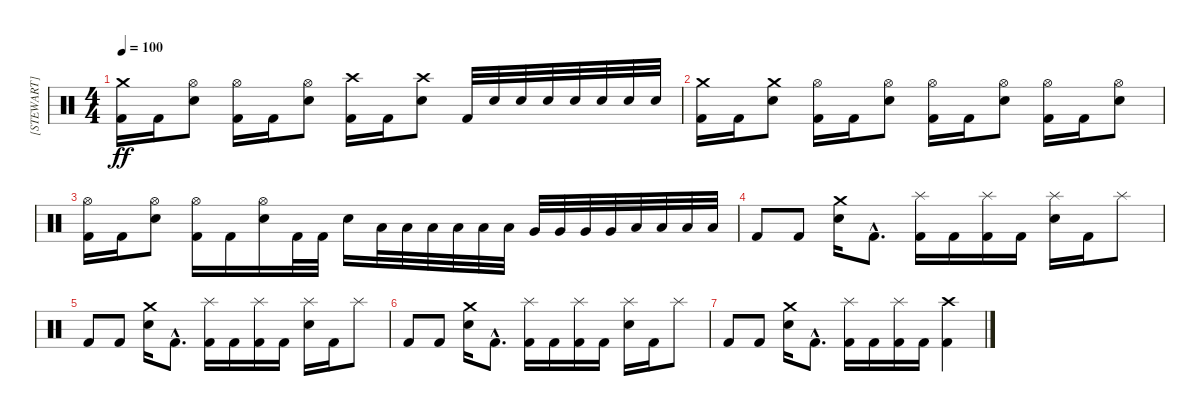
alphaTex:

\track ("[STEWART]" "[STEWART]") {instrument percussion}
\staff {score}
\articulation defaults
\ts (4 4)
\tempo 100
\clef neutral
\ks c
("Crash medium (hit)" "Kick (hit) 2").16{dy ff} "Kick (hit) 2".16 ("Hi-Hat (open)" "Electric Snare (hit)").8 ("Hi-Hat (open)" "Kick (hit) 2").16 "Kick (hit) 2".16 ("Hi-Hat (open)" "Electric Snare (hit)").8 ("Crash high (hit)" "Kick (hit) 2").16 "Kick (hit) 2".16 ("Crash high (hit)" "Electric Snare (hit)").8 "Kick (hit) 2".32 "Electric Snare (hit)".32 "Electric Snare (hit)".32 "Electric Snare (hit)".32 "Electric Snare (hit)".32 "Electric Snare (hit)".32 "Electric Snare (hit)".32 "Electric Snare (hit)".32 |
("Crash medium (hit)" "Kick (hit) 2").16 "Kick (hit) 2".16 ("Crash medium (hit)" "Electric Snare (hit)").8 ("Hi-Hat (open)" "Kick (hit) 2").16 "Kick (hit) 2".16 ("Hi-Hat (open)" "Electric Snare (hit)").8 ("Hi-Hat (open)" "Kick (hit) 2").16 "Kick (hit) 2".16 ("Hi-Hat (open)" "Electric Snare (hit)").8 ("Hi-Hat (open)" "Kick (hit) 2").16 "Kick (hit) 2".16 ("Hi-Hat (open)" "Electric Snare (hit)").8 |
("Hi-Hat (open)" "Kick (hit) 2").16 "Kick (hit) 2".16 ("Hi-Hat (open)" "Electric Snare (hit)").8 ("Hi-Hat (open)" "Kick (hit) 2").16 "Kick (hit) 2".16 ("Hi-Hat (open)" "Electric Snare (hit)").16 "Kick (hit) 2".32 "Kick (hit) 2".32 "Electric Snare (hit)".16 "Low Tom (hit)".32 "Low Tom (hit)".32 "Low Tom (hit)".32 "Low Tom (hit)".32 "Low Tom (hit)".32 "Low Tom (hit)".32 "Very Low Tom (hit)".32 "Very Low Tom (hit)".32 "Very Low Tom (hit)".32 "Very Low Tom (hit)".32 "Low Floor Tom (hit)".32 "Low Floor Tom (hit)".32 "Low Floor Tom (hit)".32 "Low Floor Tom (hit)".32 |
"Kick (hit) 2".8 "Kick (hit) 2".8 ("Crash medium (hit)" "Electric Snare (hit)").16 "Kick (hit) 2"{hac}.8{d} ("Splash (hit)" "Kick (hit) 2").16 "Kick (hit) 2".16 ("Splash (hit)" "Kick (hit) 2").16 "Kick (hit) 2".16 ("Splash (hit)" "Electric Snare (hit)").16 "Kick (hit) 2".16 "Splash (hit)".8 |
"Kick (hit) 2".8 "Kick (hit) 2".8 ("Crash medium (hit)" "Electric Snare (hit)").16 "Kick (hit) 2"{hac}.8{d} ("Splash (hit)" "Kick (hit) 2").16 "Kick (hit) 2".16 ("Splash (hit)" "Kick (hit) 2").16 "Kick (hit) 2".16 ("Splash (hit)" "Electric Snare (hit)").16 "Kick (hit) 2".16 "Splash (hit)".8 |
"Kick (hit) 2".8 "Kick (hit) 2".8 ("Crash medium (hit)" "Electric Snare (hit)").16 "Kick (hit) 2"{hac}.8{d} ("Splash (hit)" "Kick (hit) 2").16 "Kick (hit) 2".16 ("Splash (hit)" "Kick (hit) 2").16 "Kick (hit) 2".16 ("Splash (hit)" "Electric Snare (hit)").16 "Kick (hit) 2".16 "Splash (hit)".8 |
"Kick (hit) 2".8 "Kick (hit) 2".8 ("Crash medium (hit)" "Electric Snare (hit)").16 "Kick (hit) 2"{hac}.8{d} ("Splash (hit)" "Kick (hit) 2").16 "Kick (hit) 2".16 ("Splash (hit)" "Kick (hit) 2").16 "Kick (hit) 2".16 ("Crash high (hit)" "Kick (hit) 2").4
